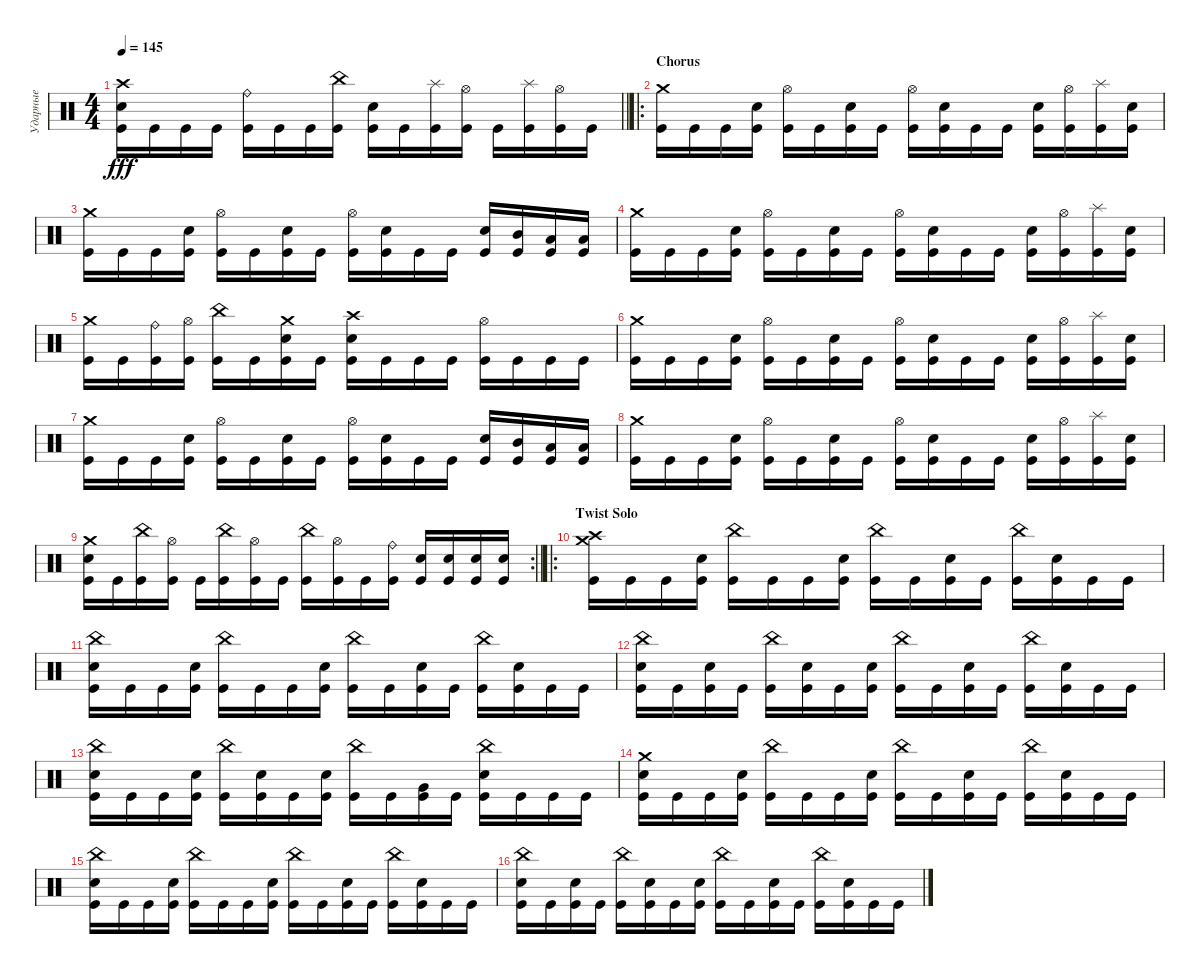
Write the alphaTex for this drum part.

\track ("Ударные" "Ударные") {instrument percussion}
\staff {score}
\articulation defaults
\ts (4 4)
\tempo 145
\clef neutral
\barLineRight lightlight
\ks c
("Kick (hit)" "Electric Snare (hit)" "Crash high (hit)").16{dy fff} "Kick (hit)".16 "Kick (hit)".16 "Kick (hit)".16 ("Kick (hit)" "Ride (bell)").16 "Kick (hit)".16 "Kick (hit)".16 ("Kick (hit)" "China (hit)").16 ("Kick (hit)" "Electric Snare (hit)").16 "Kick (hit)".16 ("Kick (hit)" "Splash (hit)").16 ("Kick (hit)" "Hi-Hat (open)").16 "Kick (hit)".16 ("Kick (hit)" "Splash (hit)").16 ("Kick (hit)" "Hi-Hat (open)").16 "Kick (hit)".16 |
\ro
\section ("" "Chorus")
("Crash medium (hit)" "Kick (hit)").16 "Kick (hit)".16 "Kick (hit)".16 ("Kick (hit)" "Electric Snare (hit)").16 ("Kick (hit)" "Hi-Hat (open)").16 "Kick (hit)".16 ("Kick (hit)" "Electric Snare (hit)").16 "Kick (hit)".16 ("Kick (hit)" "Hi-Hat (open)").16 ("Kick (hit)" "Electric Snare (hit)").16 "Kick (hit)".16 "Kick (hit)".16 ("Kick (hit)" "Electric Snare (hit)").16 ("Kick (hit)" "Hi-Hat (open)").16 ("Kick (hit)" "Splash (hit)").16 ("Kick (hit)" "Electric Snare (hit)").16 |
("Crash medium (hit)" "Kick (hit)").16 "Kick (hit)".16 "Kick (hit)".16 ("Kick (hit)" "Electric Snare (hit)").16 ("Kick (hit)" "Hi-Hat (open)").16 "Kick (hit)".16 ("Kick (hit)" "Electric Snare (hit)").16 "Kick (hit)".16 ("Kick (hit)" "Hi-Hat (open)").16 ("Kick (hit)" "Electric Snare (hit)").16 "Kick (hit)".16 "Kick (hit)".16 ("Kick (hit)" "Electric Snare (hit)").16 ("Kick (hit)" "Mid Tom (hit)").16 ("Kick (hit)" "Low Tom (hit)").16 ("Kick (hit)" "Low Tom (hit)").16 |
("Crash medium (hit)" "Kick (hit)").16 "Kick (hit)".16 "Kick (hit)".16 ("Kick (hit)" "Electric Snare (hit)").16 ("Kick (hit)" "Hi-Hat (open)").16 "Kick (hit)".16 ("Kick (hit)" "Electric Snare (hit)").16 "Kick (hit)".16 ("Kick (hit)" "Hi-Hat (open)").16 ("Kick (hit)" "Electric Snare (hit)").16 "Kick (hit)".16 "Kick (hit)".16 ("Kick (hit)" "Electric Snare (hit)").16 ("Kick (hit)" "Hi-Hat (open)").16 ("Kick (hit)" "Splash (hit)").16 ("Kick (hit)" "Electric Snare (hit)").16 |
("Crash medium (hit)" "Kick (hit)").16 "Kick (hit)".16 ("Kick (hit)" "Ride (bell)").16 ("Kick (hit)" "Hi-Hat (open)").16 ("Kick (hit)" "China (hit)").16 "Kick (hit)".16 ("Kick (hit)" "Electric Snare (hit)" "Crash medium (hit)").16 "Kick (hit)".16 ("Kick (hit)" "Crash high (hit)" "Electric Snare (hit)").16 "Kick (hit)".16 "Kick (hit)".16 "Kick (hit)".16 ("Kick (hit)" "Hi-Hat (open)").16 "Kick (hit)".16 "Kick (hit)".16 "Kick (hit)".16 |
("Crash medium (hit)" "Kick (hit)").16 "Kick (hit)".16 "Kick (hit)".16 ("Kick (hit)" "Electric Snare (hit)").16 ("Kick (hit)" "Hi-Hat (open)").16 "Kick (hit)".16 ("Kick (hit)" "Electric Snare (hit)").16 "Kick (hit)".16 ("Kick (hit)" "Hi-Hat (open)").16 ("Kick (hit)" "Electric Snare (hit)").16 "Kick (hit)".16 "Kick (hit)".16 ("Kick (hit)" "Electric Snare (hit)").16 ("Kick (hit)" "Hi-Hat (open)").16 ("Kick (hit)" "Splash (hit)").16 ("Kick (hit)" "Electric Snare (hit)").16 |
("Crash medium (hit)" "Kick (hit)").16 "Kick (hit)".16 "Kick (hit)".16 ("Kick (hit)" "Electric Snare (hit)").16 ("Kick (hit)" "Hi-Hat (open)").16 "Kick (hit)".16 ("Kick (hit)" "Electric Snare (hit)").16 "Kick (hit)".16 ("Kick (hit)" "Hi-Hat (open)").16 ("Kick (hit)" "Electric Snare (hit)").16 "Kick (hit)".16 "Kick (hit)".16 ("Kick (hit)" "Electric Snare (hit)").16 ("Kick (hit)" "Mid Tom (hit)").16 ("Kick (hit)" "Low Tom (hit)").16 ("Kick (hit)" "Low Tom (hit)").16 |
("Crash medium (hit)" "Kick (hit)").16 "Kick (hit)".16 "Kick (hit)".16 ("Kick (hit)" "Electric Snare (hit)").16 ("Kick (hit)" "Hi-Hat (open)").16 "Kick (hit)".16 ("Kick (hit)" "Electric Snare (hit)").16 "Kick (hit)".16 ("Kick (hit)" "Hi-Hat (open)").16 ("Kick (hit)" "Electric Snare (hit)").16 "Kick (hit)".16 "Kick (hit)".16 ("Kick (hit)" "Electric Snare (hit)").16 ("Kick (hit)" "Hi-Hat (open)").16 ("Kick (hit)" "Splash (hit)").16 ("Kick (hit)" "Electric Snare (hit)").16 |
\rc 2
\barLineRight lightlight
("Crash medium (hit)" "Kick (hit)" "Electric Snare (hit)").16 "Kick (hit)".16 ("Kick (hit)" "China (hit)").16 ("Kick (hit)" "Hi-Hat (open)").16 "Kick (hit)".16 ("Kick (hit)" "China (hit)").16 ("Kick (hit)" "Hi-Hat (open)").16 "Kick (hit)".16 ("Kick (hit)" "China (hit)").16 ("Kick (hit)" "Hi-Hat (open)").16 "Kick (hit)".16 ("Kick (hit)" "Ride (bell)").16 ("Kick (hit)" "Electric Snare (hit)").16 ("Kick (hit)" "Electric Snare (hit)").16 ("Kick (hit)" "Electric Snare (hit)").16 ("Kick (hit)" "Electric Snare (hit)").16 |
\ro
\section ("" "Twist Solo")
("Kick (hit)" "Crash medium (hit)" "Crash high (hit)").16 "Kick (hit)".16 "Kick (hit)".16 ("Kick (hit)" "Electric Snare (hit)").16 ("Kick (hit)" "China (hit)").16 "Kick (hit)".16 "Kick (hit)".16 ("Kick (hit)" "Electric Snare (hit)").16 ("Kick (hit)" "China (hit)").16 "Kick (hit)".16 ("Kick (hit)" "Electric Snare (hit)").16 "Kick (hit)".16 ("Kick (hit)" "China (hit)").16 ("Kick (hit)" "Electric Snare (hit)").16 "Kick (hit)".16 "Kick (hit)".16 |
("Kick (hit)" "China (hit)" "Electric Snare (hit)").16 "Kick (hit)".16 "Kick (hit)".16 ("Kick (hit)" "Electric Snare (hit)").16 ("Kick (hit)" "China (hit)").16 "Kick (hit)".16 "Kick (hit)".16 ("Kick (hit)" "Electric Snare (hit)").16 ("Kick (hit)" "China (hit)").16 "Kick (hit)".16 ("Kick (hit)" "Electric Snare (hit)").16 "Kick (hit)".16 ("Kick (hit)" "China (hit)").16 ("Kick (hit)" "Electric Snare (hit)").16 "Kick (hit)".16 "Kick (hit)".16 |
("Kick (hit)" "China (hit)" "Electric Snare (hit)").16 "Kick (hit)".16 ("Kick (hit)" "Electric Snare (hit)").16 "Kick (hit)".16 ("Kick (hit)" "China (hit)").16 ("Kick (hit)" "Electric Snare (hit)").16 "Kick (hit)".16 ("Kick (hit)" "Electric Snare (hit)").16 ("Kick (hit)" "China (hit)").16 "Kick (hit)".16 ("Kick (hit)" "Electric Snare (hit)").16 "Kick (hit)".16 ("Kick (hit)" "China (hit)").16 ("Kick (hit)" "Electric Snare (hit)").16 "Kick (hit)".16 "Kick (hit)".16 |
("Kick (hit)" "Electric Snare (hit)" "China (hit)").16 "Kick (hit)".16 "Kick (hit)".16 ("Kick (hit)" "Electric Snare (hit)").16 ("Kick (hit)" "China (hit)").16 ("Kick (hit)" "Electric Snare (hit)").16 "Kick (hit)".16 ("Kick (hit)" "Electric Snare (hit)").16 ("Kick (hit)" "China (hit)").16 "Kick (hit)".16 ("Kick (hit)" "Very Low Tom (hit)").16 "Kick (hit)".16 ("Kick (hit)" "Electric Snare (hit)" "China (hit)").16 "Kick (hit)".16 "Kick (hit)".16 "Kick (hit)".16 |
("Kick (hit)" "Crash medium (hit)" "Electric Snare (hit)").16 "Kick (hit)".16 "Kick (hit)".16 ("Kick (hit)" "Electric Snare (hit)").16 ("Kick (hit)" "China (hit)").16 "Kick (hit)".16 "Kick (hit)".16 ("Kick (hit)" "Electric Snare (hit)").16 ("Kick (hit)" "China (hit)").16 "Kick (hit)".16 ("Kick (hit)" "Electric Snare (hit)").16 "Kick (hit)".16 ("Kick (hit)" "China (hit)").16 ("Kick (hit)" "Electric Snare (hit)").16 "Kick (hit)".16 "Kick (hit)".16 |
("Kick (hit)" "China (hit)" "Electric Snare (hit)").16 "Kick (hit)".16 "Kick (hit)".16 ("Kick (hit)" "Electric Snare (hit)").16 ("Kick (hit)" "China (hit)").16 "Kick (hit)".16 "Kick (hit)".16 ("Kick (hit)" "Electric Snare (hit)").16 ("Kick (hit)" "China (hit)").16 "Kick (hit)".16 ("Kick (hit)" "Electric Snare (hit)").16 "Kick (hit)".16 ("Kick (hit)" "China (hit)").16 ("Kick (hit)" "Electric Snare (hit)").16 "Kick (hit)".16 "Kick (hit)".16 |
("Kick (hit)" "China (hit)" "Electric Snare (hit)").16 "Kick (hit)".16 ("Kick (hit)" "Electric Snare (hit)").16 "Kick (hit)".16 ("Kick (hit)" "China (hit)").16 ("Kick (hit)" "Electric Snare (hit)").16 "Kick (hit)".16 ("Kick (hit)" "Electric Snare (hit)").16 ("Kick (hit)" "China (hit)").16 "Kick (hit)".16 ("Kick (hit)" "Electric Snare (hit)").16 "Kick (hit)".16 ("Kick (hit)" "China (hit)").16 ("Kick (hit)" "Electric Snare (hit)").16 "Kick (hit)".16 "Kick (hit)".16
